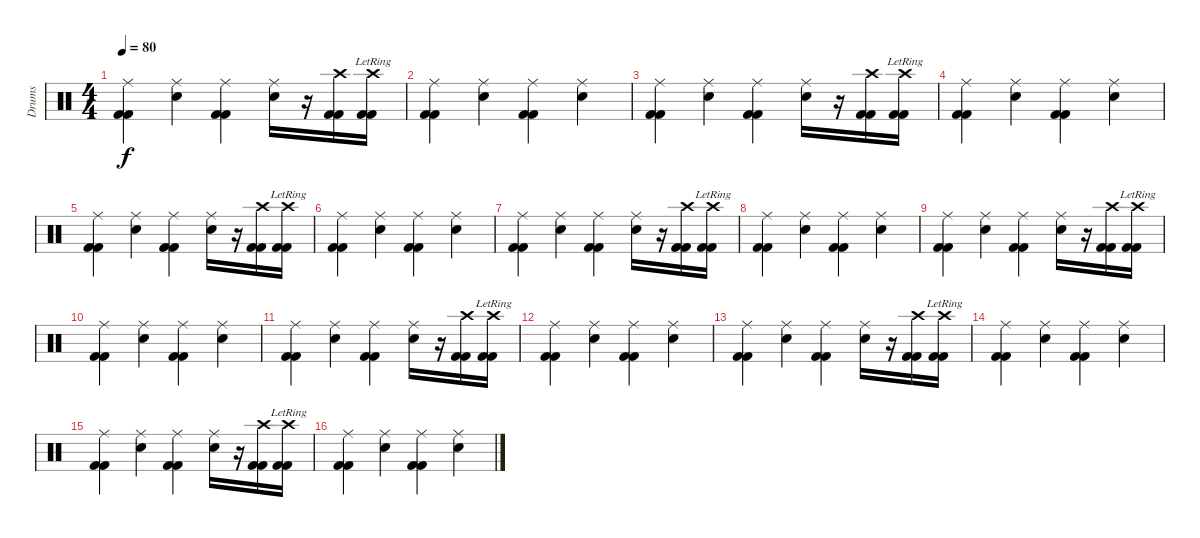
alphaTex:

\track ("Drums" "Drums") {instrument percussion}
\staff {score}
\articulation defaults
\ts (4 4)
\tempo 80
\clef neutral
\ks c
("Ride (middle)" "Kick (hit) 2" "Kick (hit) 2").4{dy f} ("Ride (middle)" "Snare (hit) 2").4 ("Ride (middle)" "Kick (hit) 2" "Kick (hit) 2").4 ("Ride (middle)" "Snare (hit) 2").16 r.16 ("Crash high (hit)" "Kick (hit) 2" "Kick (hit) 2").16 ("Crash high (hit)"{lr} "Kick (hit) 2" "Kick (hit) 2").16 |
("Ride (middle)" "Kick (hit) 2" "Kick (hit) 2").4 ("Ride (middle)" "Snare (hit) 2").4 ("Ride (middle)" "Kick (hit) 2" "Kick (hit) 2").4 ("Ride (middle)" "Snare (hit) 2").4 |
("Ride (middle)" "Kick (hit) 2" "Kick (hit) 2").4 ("Ride (middle)" "Snare (hit) 2").4 ("Ride (middle)" "Kick (hit) 2" "Kick (hit) 2").4 ("Ride (middle)" "Snare (hit) 2").16 r.16 ("Crash high (hit)" "Kick (hit) 2" "Kick (hit) 2").16 ("Crash high (hit)"{lr} "Kick (hit) 2" "Kick (hit) 2").16 |
("Ride (middle)" "Kick (hit) 2" "Kick (hit) 2").4 ("Ride (middle)" "Snare (hit) 2").4 ("Ride (middle)" "Kick (hit) 2" "Kick (hit) 2").4 ("Ride (middle)" "Snare (hit) 2").4 |
("Ride (middle)" "Kick (hit) 2" "Kick (hit) 2").4 ("Ride (middle)" "Snare (hit) 2").4 ("Ride (middle)" "Kick (hit) 2" "Kick (hit) 2").4 ("Ride (middle)" "Snare (hit) 2").16 r.16 ("Crash high (hit)" "Kick (hit) 2" "Kick (hit) 2").16 ("Crash high (hit)"{lr} "Kick (hit) 2" "Kick (hit) 2").16 |
("Ride (middle)" "Kick (hit) 2" "Kick (hit) 2").4 ("Ride (middle)" "Snare (hit) 2").4 ("Ride (middle)" "Kick (hit) 2" "Kick (hit) 2").4 ("Ride (middle)" "Snare (hit) 2").4 |
("Ride (middle)" "Kick (hit) 2" "Kick (hit) 2").4 ("Ride (middle)" "Snare (hit) 2").4 ("Ride (middle)" "Kick (hit) 2" "Kick (hit) 2").4 ("Ride (middle)" "Snare (hit) 2").16 r.16 ("Crash high (hit)" "Kick (hit) 2" "Kick (hit) 2").16 ("Crash high (hit)"{lr} "Kick (hit) 2" "Kick (hit) 2").16 |
("Ride (middle)" "Kick (hit) 2" "Kick (hit) 2").4 ("Ride (middle)" "Snare (hit) 2").4 ("Ride (middle)" "Kick (hit) 2" "Kick (hit) 2").4 ("Ride (middle)" "Snare (hit) 2").4 |
("Ride (middle)" "Kick (hit) 2" "Kick (hit) 2").4 ("Ride (middle)" "Snare (hit) 2").4 ("Ride (middle)" "Kick (hit) 2" "Kick (hit) 2").4 ("Ride (middle)" "Snare (hit) 2").16 r.16 ("Crash high (hit)" "Kick (hit) 2" "Kick (hit) 2").16 ("Crash high (hit)"{lr} "Kick (hit) 2" "Kick (hit) 2").16 |
("Ride (middle)" "Kick (hit) 2" "Kick (hit) 2").4 ("Ride (middle)" "Snare (hit) 2").4 ("Ride (middle)" "Kick (hit) 2" "Kick (hit) 2").4 ("Ride (middle)" "Snare (hit) 2").4 |
("Ride (middle)" "Kick (hit) 2" "Kick (hit) 2").4 ("Ride (middle)" "Snare (hit) 2").4 ("Ride (middle)" "Kick (hit) 2" "Kick (hit) 2").4 ("Ride (middle)" "Snare (hit) 2").16 r.16 ("Crash high (hit)" "Kick (hit) 2" "Kick (hit) 2").16 ("Crash high (hit)"{lr} "Kick (hit) 2" "Kick (hit) 2").16 |
("Ride (middle)" "Kick (hit) 2" "Kick (hit) 2").4 ("Ride (middle)" "Snare (hit) 2").4 ("Ride (middle)" "Kick (hit) 2" "Kick (hit) 2").4 ("Ride (middle)" "Snare (hit) 2").4 |
("Ride (middle)" "Kick (hit) 2" "Kick (hit) 2").4 ("Ride (middle)" "Snare (hit) 2").4 ("Ride (middle)" "Kick (hit) 2" "Kick (hit) 2").4 ("Ride (middle)" "Snare (hit) 2").16 r.16 ("Crash high (hit)" "Kick (hit) 2" "Kick (hit) 2").16 ("Crash high (hit)"{lr} "Kick (hit) 2" "Kick (hit) 2").16 |
("Ride (middle)" "Kick (hit) 2" "Kick (hit) 2").4 ("Ride (middle)" "Snare (hit) 2").4 ("Ride (middle)" "Kick (hit) 2" "Kick (hit) 2").4 ("Ride (middle)" "Snare (hit) 2").4 |
("Ride (middle)" "Kick (hit) 2" "Kick (hit) 2").4 ("Ride (middle)" "Snare (hit) 2").4 ("Ride (middle)" "Kick (hit) 2" "Kick (hit) 2").4 ("Ride (middle)" "Snare (hit) 2").16 r.16 ("Crash high (hit)" "Kick (hit) 2" "Kick (hit) 2").16 ("Crash high (hit)"{lr} "Kick (hit) 2" "Kick (hit) 2").16 |
("Ride (middle)" "Kick (hit) 2" "Kick (hit) 2").4 ("Ride (middle)" "Snare (hit) 2").4 ("Ride (middle)" "Kick (hit) 2" "Kick (hit) 2").4 ("Ride (middle)" "Snare (hit) 2").4
